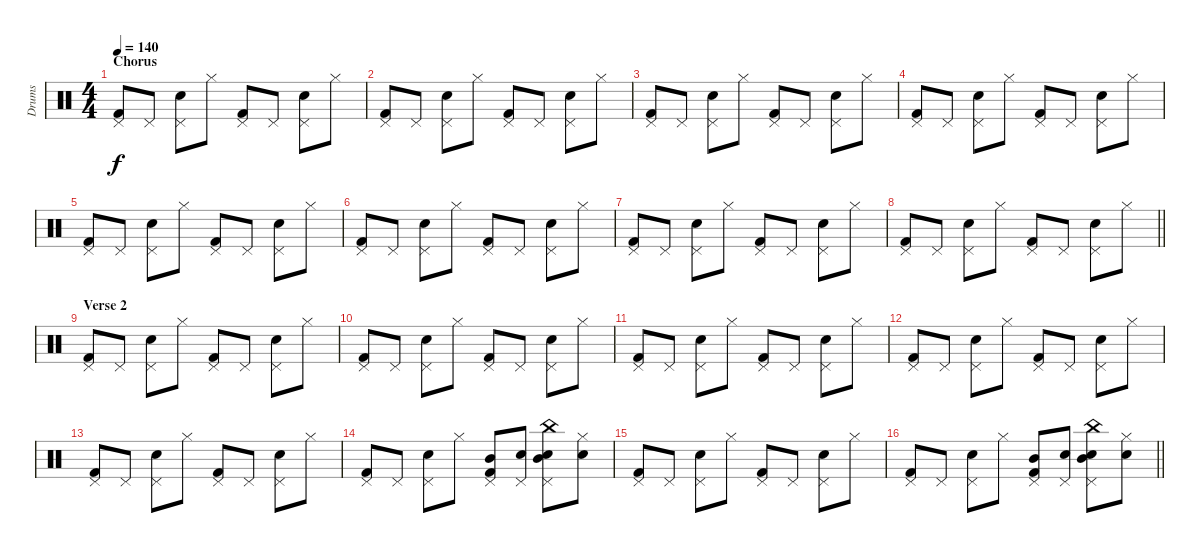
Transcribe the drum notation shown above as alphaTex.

\track ("Drums" "Drums") {instrument percussion}
\staff {score}
\articulation defaults
\ts (4 4)
\section ("" "Chorus")
\tempo 140
\clef neutral
\ks c
("Kick (hit) 2" "Pedal Hi-Hat (hit)").8{dy f} "Pedal Hi-Hat (hit)".8 ("Snare (hit) 2" "Pedal Hi-Hat (hit)").8 "Hi-Hat (closed)".8 ("Kick (hit) 2" "Pedal Hi-Hat (hit)").8 "Pedal Hi-Hat (hit)".8 ("Snare (hit) 2" "Pedal Hi-Hat (hit)").8 "Hi-Hat (closed)".8 |
("Kick (hit) 2" "Pedal Hi-Hat (hit)").8 "Pedal Hi-Hat (hit)".8 ("Snare (hit) 2" "Pedal Hi-Hat (hit)").8 "Hi-Hat (closed)".8 ("Kick (hit) 2" "Pedal Hi-Hat (hit)").8 "Pedal Hi-Hat (hit)".8 ("Snare (hit) 2" "Pedal Hi-Hat (hit)").8 "Hi-Hat (closed)".8 |
("Kick (hit) 2" "Pedal Hi-Hat (hit)").8 "Pedal Hi-Hat (hit)".8 ("Snare (hit) 2" "Pedal Hi-Hat (hit)").8 "Hi-Hat (closed)".8 ("Kick (hit) 2" "Pedal Hi-Hat (hit)").8 "Pedal Hi-Hat (hit)".8 ("Snare (hit) 2" "Pedal Hi-Hat (hit)").8 "Hi-Hat (closed)".8 |
("Kick (hit) 2" "Pedal Hi-Hat (hit)").8 "Pedal Hi-Hat (hit)".8 ("Snare (hit) 2" "Pedal Hi-Hat (hit)").8 "Hi-Hat (closed)".8 ("Kick (hit) 2" "Pedal Hi-Hat (hit)").8 "Pedal Hi-Hat (hit)".8 ("Snare (hit) 2" "Pedal Hi-Hat (hit)").8 "Hi-Hat (closed)".8 |
("Kick (hit) 2" "Pedal Hi-Hat (hit)").8 "Pedal Hi-Hat (hit)".8 ("Snare (hit) 2" "Pedal Hi-Hat (hit)").8 "Hi-Hat (closed)".8 ("Kick (hit) 2" "Pedal Hi-Hat (hit)").8 "Pedal Hi-Hat (hit)".8 ("Snare (hit) 2" "Pedal Hi-Hat (hit)").8 "Hi-Hat (closed)".8 |
("Kick (hit) 2" "Pedal Hi-Hat (hit)").8 "Pedal Hi-Hat (hit)".8 ("Snare (hit) 2" "Pedal Hi-Hat (hit)").8 "Hi-Hat (closed)".8 ("Kick (hit) 2" "Pedal Hi-Hat (hit)").8 "Pedal Hi-Hat (hit)".8 ("Snare (hit) 2" "Pedal Hi-Hat (hit)").8 "Hi-Hat (closed)".8 |
("Kick (hit) 2" "Pedal Hi-Hat (hit)").8 "Pedal Hi-Hat (hit)".8 ("Snare (hit) 2" "Pedal Hi-Hat (hit)").8 "Hi-Hat (closed)".8 ("Kick (hit) 2" "Pedal Hi-Hat (hit)").8 "Pedal Hi-Hat (hit)".8 ("Snare (hit) 2" "Pedal Hi-Hat (hit)").8 "Hi-Hat (closed)".8 |
\barLineRight lightlight
("Kick (hit) 2" "Pedal Hi-Hat (hit)").8 "Pedal Hi-Hat (hit)".8 ("Snare (hit) 2" "Pedal Hi-Hat (hit)").8 "Hi-Hat (closed)".8 ("Kick (hit) 2" "Pedal Hi-Hat (hit)").8 "Pedal Hi-Hat (hit)".8 ("Snare (hit) 2" "Pedal Hi-Hat (hit)").8 "Hi-Hat (closed)".8 |
\section ("" "Verse 2")
("Kick (hit) 2" "Pedal Hi-Hat (hit)").8 "Pedal Hi-Hat (hit)".8 ("Snare (hit) 2" "Pedal Hi-Hat (hit)").8 "Hi-Hat (closed)".8 ("Kick (hit) 2" "Pedal Hi-Hat (hit)").8 "Pedal Hi-Hat (hit)".8 ("Snare (hit) 2" "Pedal Hi-Hat (hit)").8 "Hi-Hat (closed)".8 |
("Kick (hit) 2" "Pedal Hi-Hat (hit)").8 "Pedal Hi-Hat (hit)".8 ("Snare (hit) 2" "Pedal Hi-Hat (hit)").8 "Hi-Hat (closed)".8 ("Kick (hit) 2" "Pedal Hi-Hat (hit)").8 "Pedal Hi-Hat (hit)".8 ("Snare (hit) 2" "Pedal Hi-Hat (hit)").8 "Hi-Hat (closed)".8 |
("Kick (hit) 2" "Pedal Hi-Hat (hit)").8 "Pedal Hi-Hat (hit)".8 ("Snare (hit) 2" "Pedal Hi-Hat (hit)").8 "Hi-Hat (closed)".8 ("Kick (hit) 2" "Pedal Hi-Hat (hit)").8 "Pedal Hi-Hat (hit)".8 ("Snare (hit) 2" "Pedal Hi-Hat (hit)").8 "Hi-Hat (closed)".8 |
("Kick (hit) 2" "Pedal Hi-Hat (hit)").8 "Pedal Hi-Hat (hit)".8 ("Snare (hit) 2" "Pedal Hi-Hat (hit)").8 "Hi-Hat (closed)".8 ("Kick (hit) 2" "Pedal Hi-Hat (hit)").8 "Pedal Hi-Hat (hit)".8 ("Snare (hit) 2" "Pedal Hi-Hat (hit)").8 "Hi-Hat (closed)".8 |
("Kick (hit) 2" "Pedal Hi-Hat (hit)").8 "Pedal Hi-Hat (hit)".8 ("Snare (hit) 2" "Pedal Hi-Hat (hit)").8 "Hi-Hat (closed)".8 ("Kick (hit) 2" "Pedal Hi-Hat (hit)").8 "Pedal Hi-Hat (hit)".8 ("Snare (hit) 2" "Pedal Hi-Hat (hit)").8 "Hi-Hat (closed)".8 |
("Kick (hit) 2" "Pedal Hi-Hat (hit)").8 "Pedal Hi-Hat (hit)".8 ("Snare (hit) 2" "Pedal Hi-Hat (hit)").8 "Hi-Hat (closed)".8 ("Kick (hit) 2" "Mid Tom (hit)" "Pedal Hi-Hat (hit)").8 ("Hand Clap (hit)" "Pedal Hi-Hat (hit)").8 ("Snare (hit) 2" "China (hit)" "Mid Tom (hit)" "Pedal Hi-Hat (hit)").8 ("Hand Clap (hit)" "Hi-Hat (closed)").8 |
("Kick (hit) 2" "Pedal Hi-Hat (hit)").8 "Pedal Hi-Hat (hit)".8 ("Snare (hit) 2" "Pedal Hi-Hat (hit)").8 "Hi-Hat (closed)".8 ("Kick (hit) 2" "Pedal Hi-Hat (hit)").8 "Pedal Hi-Hat (hit)".8 ("Snare (hit) 2" "Pedal Hi-Hat (hit)").8 "Hi-Hat (closed)".8 |
\barLineRight lightlight
("Kick (hit) 2" "Pedal Hi-Hat (hit)").8 "Pedal Hi-Hat (hit)".8 ("Snare (hit) 2" "Pedal Hi-Hat (hit)").8 "Hi-Hat (closed)".8 ("Kick (hit) 2" "Mid Tom (hit)" "Pedal Hi-Hat (hit)").8 ("Hand Clap (hit)" "Pedal Hi-Hat (hit)").8 ("Snare (hit) 2" "China (hit)" "Mid Tom (hit)" "Pedal Hi-Hat (hit)").8 ("Hand Clap (hit)" "Hi-Hat (closed)").8
